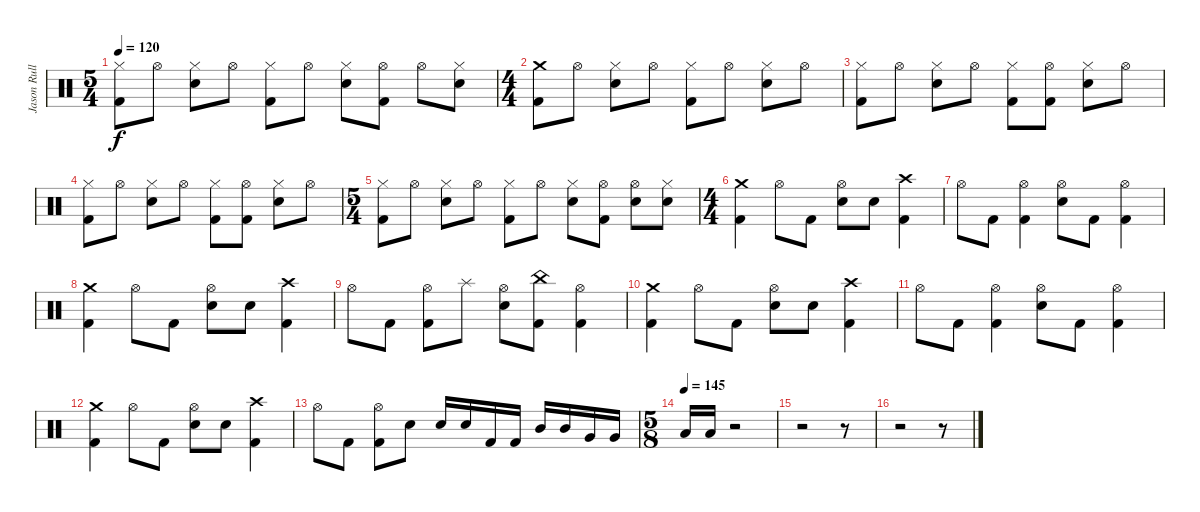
\track ("Jason Rullo" "Jason Rull") {instrument percussion}
\staff {score}
\articulation defaults
\ts (5 4)
\tempo 120
\clef neutral
\ks c
("Hi-Hat (closed)" "Kick (hit) 2").8{dy f} "Hi-Hat (open)".8 ("Electric Snare (hit)" "Hi-Hat (closed)").8 "Hi-Hat (open)".8 ("Kick (hit) 2" "Hi-Hat (closed)").8 "Hi-Hat (open)".8 ("Electric Snare (hit)" "Hi-Hat (closed)").8 ("Kick (hit) 2" "Hi-Hat (open)").8 "Hi-Hat (open)".8 ("Hi-Hat (closed)" "Electric Snare (hit)").8 |
\ts (4 4)
("Crash medium (hit)" "Kick (hit) 2").8 "Hi-Hat (open)".8 ("Electric Snare (hit)" "Hi-Hat (closed)").8 "Hi-Hat (open)".8 ("Kick (hit) 2" "Hi-Hat (closed)").8 "Hi-Hat (open)".8 ("Electric Snare (hit)" "Hi-Hat (closed)").8 "Hi-Hat (open)".8 |
("Hi-Hat (closed)" "Kick (hit) 2").8 "Hi-Hat (open)".8 ("Electric Snare (hit)" "Hi-Hat (closed)").8 "Hi-Hat (open)".8 ("Kick (hit) 2" "Hi-Hat (closed)").8 ("Kick (hit) 2" "Hi-Hat (open)").8 ("Electric Snare (hit)" "Hi-Hat (closed)").8 "Hi-Hat (open)".8 |
("Hi-Hat (closed)" "Kick (hit) 2").8 "Hi-Hat (open)".8 ("Electric Snare (hit)" "Hi-Hat (closed)").8 "Hi-Hat (open)".8 ("Kick (hit) 2" "Hi-Hat (closed)").8 ("Kick (hit) 2" "Hi-Hat (open)").8 ("Electric Snare (hit)" "Hi-Hat (closed)").8 "Hi-Hat (open)".8 |
\ts (5 4)
("Hi-Hat (closed)" "Kick (hit) 2").8 "Hi-Hat (open)".8 ("Electric Snare (hit)" "Hi-Hat (closed)").8 "Hi-Hat (open)".8 ("Kick (hit) 2" "Hi-Hat (closed)").8 "Hi-Hat (open)".8 ("Electric Snare (hit)" "Hi-Hat (closed)").8 ("Kick (hit) 2" "Hi-Hat (open)").8 ("Electric Snare (hit)" "Hi-Hat (open)").8 ("Hi-Hat (closed)" "Electric Snare (hit)").8 |
\ts (4 4)
("Crash medium (hit)" "Kick (hit) 2").4{volume 16 balance 8} "Hi-Hat (open)".8 "Kick (hit) 2".8 ("Electric Snare (hit)" "Hi-Hat (open)").8 "Electric Snare (hit)".8 ("Kick (hit) 2" "Crash high (hit)").4 |
"Hi-Hat (open)".8 "Kick (hit) 2".8 ("Kick (hit) 2" "Hi-Hat (open)").4 ("Electric Snare (hit)" "Hi-Hat (open)").8 "Kick (hit) 2".8 ("Kick (hit) 2" "Hi-Hat (open)").4 |
("Crash medium (hit)" "Kick (hit) 2").4 "Hi-Hat (open)".8 "Kick (hit) 2".8 ("Electric Snare (hit)" "Hi-Hat (open)").8 "Electric Snare (hit)".8 ("Kick (hit) 2" "Crash high (hit)").4 |
"Hi-Hat (open)".8 "Kick (hit) 2".8 ("Kick (hit) 2" "Hi-Hat (open)").8 "Splash (hit)".8 ("Electric Snare (hit)" "Hi-Hat (open)").8 ("China (hit)" "Kick (hit) 2").8 ("Kick (hit) 2" "Hi-Hat (open)").4 |
("Crash medium (hit)" "Kick (hit) 2").4 "Hi-Hat (open)".8 "Kick (hit) 2".8 ("Electric Snare (hit)" "Hi-Hat (open)").8 "Electric Snare (hit)".8 ("Kick (hit) 2" "Crash high (hit)").4 |
"Hi-Hat (open)".8 "Kick (hit) 2".8 ("Kick (hit) 2" "Hi-Hat (open)").4 ("Electric Snare (hit)" "Hi-Hat (open)").8 "Kick (hit) 2".8 ("Kick (hit) 2" "Hi-Hat (open)").4 |
("Crash medium (hit)" "Kick (hit) 2").4 "Hi-Hat (open)".8 "Kick (hit) 2".8 ("Electric Snare (hit)" "Hi-Hat (open)").8 "Electric Snare (hit)".8 ("Kick (hit) 2" "Crash high (hit)").4 |
"Hi-Hat (open)".8 "Kick (hit) 2".8 ("Kick (hit) 2" "Hi-Hat (open)").8 "Electric Snare (hit)".8 "Electric Snare (hit)".16 "Electric Snare (hit)".16 "Kick (hit) 2".16 "Kick (hit) 2".16 "Mid Tom (hit)".16 "Mid Tom (hit)".16 "Very Low Tom (hit)".16 "Very Low Tom (hit)".16 |
\ts (5 8)
\tempo (145)
"Low Tom (hit)".16 "Low Tom (hit)".16 r.2 |
r.2 r.8 |
r.2 r.8
